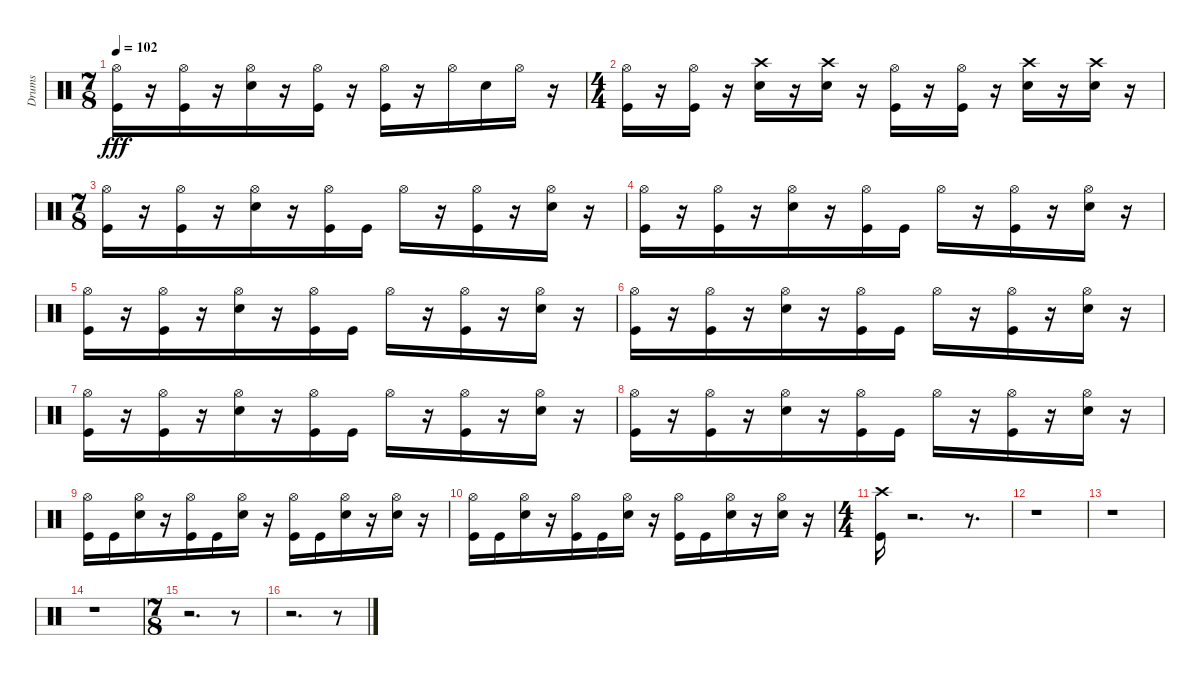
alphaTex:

\track ("Drums" "Drums") {instrument percussion}
\staff {score}
\articulation defaults
\ts (7 8)
\tempo 102
\clef neutral
\ks c
("Kick (hit)" "Hi-Hat (open)").16{dy fff} r.16 ("Kick (hit)" "Hi-Hat (open)").16 r.16 ("Snare (hit) 2" "Hi-Hat (open)").16 r.16 ("Kick (hit)" "Hi-Hat (open)").16 r.16 ("Kick (hit)" "Hi-Hat (open)").16 r.16 "Hi-Hat (open)".16 "Snare (hit) 2".16 "Hi-Hat (open)".16 r.16 |
\ts (4 4)
("Hi-Hat (open)" "Kick (hit)").16 r.16 ("Hi-Hat (open)" "Kick (hit)").16 r.16 ("Crash high (hit)" "Snare (hit) 2").16 r.16 ("Crash high (hit)" "Snare (hit) 2").16 r.16 ("Hi-Hat (open)" "Kick (hit)").16 r.16 ("Hi-Hat (open)" "Kick (hit)").16 r.16 ("Crash high (hit)" "Snare (hit) 2").16 r.16 ("Crash high (hit)" "Snare (hit) 2").16 r.16 |
\ts (7 8)
("Hi-Hat (open)" "Kick (hit)").16 r.16 ("Hi-Hat (open)" "Kick (hit)").16 r.16 ("Hi-Hat (open)" "Snare (hit) 2").16 r.16 ("Hi-Hat (open)" "Kick (hit)").16 "Kick (hit)".16 "Hi-Hat (open)".16 r.16 ("Kick (hit)" "Hi-Hat (open)").16 r.16 ("Snare (hit) 2" "Hi-Hat (open)").16 r.16 |
("Kick (hit)" "Hi-Hat (open)").16 r.16 ("Kick (hit)" "Hi-Hat (open)").16 r.16 ("Snare (hit) 2" "Hi-Hat (open)").16 r.16 ("Kick (hit)" "Hi-Hat (open)").16 "Kick (hit)".16 "Hi-Hat (open)".16 r.16 ("Hi-Hat (open)" "Kick (hit)").16 r.16 ("Hi-Hat (open)" "Snare (hit) 2").16 r.16 |
("Kick (hit)" "Hi-Hat (open)").16 r.16 ("Kick (hit)" "Hi-Hat (open)").16 r.16 ("Snare (hit) 2" "Hi-Hat (open)").16 r.16 ("Kick (hit)" "Hi-Hat (open)").16 "Kick (hit)".16 "Hi-Hat (open)".16 r.16 ("Hi-Hat (open)" "Kick (hit)").16 r.16 ("Hi-Hat (open)" "Snare (hit) 2").16 r.16 |
("Hi-Hat (open)" "Kick (hit)").16 r.16 ("Hi-Hat (open)" "Kick (hit)").16 r.16 ("Hi-Hat (open)" "Snare (hit) 2").16 r.16 ("Hi-Hat (open)" "Kick (hit)").16 "Kick (hit)".16 "Hi-Hat (open)".16 r.16 ("Kick (hit)" "Hi-Hat (open)").16 r.16 ("Snare (hit) 2" "Hi-Hat (open)").16 r.16 |
("Kick (hit)" "Hi-Hat (open)").16 r.16 ("Kick (hit)" "Hi-Hat (open)").16 r.16 ("Snare (hit) 2" "Hi-Hat (open)").16 r.16 ("Kick (hit)" "Hi-Hat (open)").16 "Kick (hit)".16 "Hi-Hat (open)".16 r.16 ("Hi-Hat (open)" "Kick (hit)").16 r.16 ("Hi-Hat (open)" "Snare (hit) 2").16 r.16 |
("Hi-Hat (open)" "Kick (hit)").16 r.16 ("Hi-Hat (open)" "Kick (hit)").16 r.16 ("Hi-Hat (open)" "Snare (hit) 2").16 r.16 ("Hi-Hat (open)" "Kick (hit)").16 "Kick (hit)".16 "Hi-Hat (open)".16 r.16 ("Kick (hit)" "Hi-Hat (open)").16 r.16 ("Snare (hit) 2" "Hi-Hat (open)").16 r.16 |
("Hi-Hat (open)" "Kick (hit)").16 "Kick (hit)".16 ("Hi-Hat (open)" "Snare (hit) 2").16 r.16 ("Hi-Hat (open)" "Kick (hit)").16 "Kick (hit)".16 ("Hi-Hat (open)" "Snare (hit) 2").16 r.16 ("Hi-Hat (open)" "Kick (hit)").16 "Kick (hit)".16 ("Hi-Hat (open)" "Snare (hit) 2").16 r.16 ("Hi-Hat (open)" "Snare (hit) 2").16 r.16 |
("Hi-Hat (open)" "Kick (hit)").16 "Kick (hit)".16 ("Hi-Hat (open)" "Snare (hit) 2").16 r.16 ("Hi-Hat (open)" "Kick (hit)").16 "Kick (hit)".16 ("Hi-Hat (open)" "Snare (hit) 2").16 r.16 ("Hi-Hat (open)" "Kick (hit)").16 "Kick (hit)".16 ("Hi-Hat (open)" "Snare (hit) 2").16 r.16 ("Hi-Hat (open)" "Snare (hit) 2").16 r.16 |
\ts (4 4)
("Crash high (hit)" "Kick (hit)").16 r.2{d} r.8{d} |
r.1 |
r.1 |
r.1 |
\ts (7 8)
r.2{d} r.8 |
r.2{d} r.8
